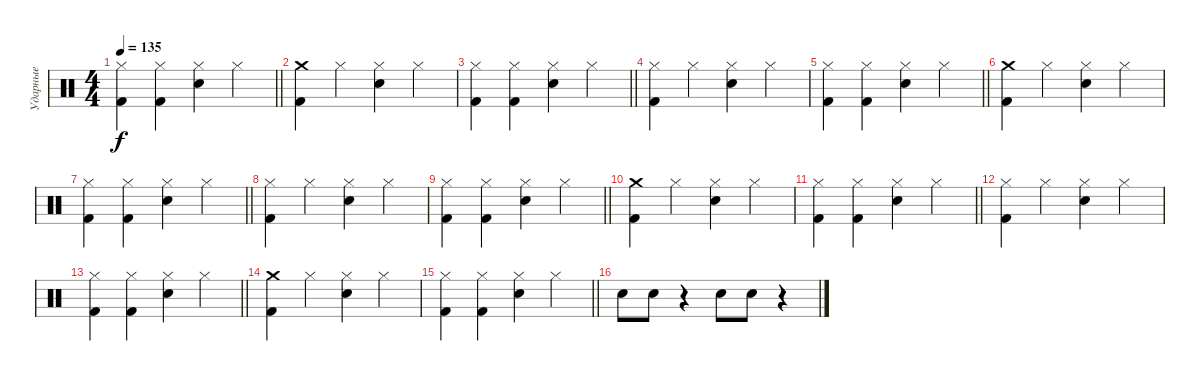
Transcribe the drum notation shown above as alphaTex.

\track ("Ударные" "Ударные") {instrument percussion}
\staff {score}
\articulation defaults
\ts (4 4)
\tempo 135
\clef neutral
\barLineRight lightlight
\ks c
("Hi-Hat (closed)" "Kick (hit) 2").4{dy f} ("Hi-Hat (closed)" "Kick (hit) 2").4 ("Hi-Hat (closed)" "Electric Snare (hit)").4 "Hi-Hat (closed)".4 |
("Crash medium (hit)" "Kick (hit) 2").4 "Hi-Hat (closed)".4 ("Hi-Hat (closed)" "Electric Snare (hit)").4 "Hi-Hat (closed)".4 |
\barLineRight lightlight
("Hi-Hat (closed)" "Kick (hit) 2").4 ("Hi-Hat (closed)" "Kick (hit) 2").4 ("Hi-Hat (closed)" "Electric Snare (hit)").4 "Hi-Hat (closed)".4 |
("Hi-Hat (closed)" "Kick (hit) 2").4 "Hi-Hat (closed)".4 ("Hi-Hat (closed)" "Electric Snare (hit)").4 "Hi-Hat (closed)".4 |
\barLineRight lightlight
("Hi-Hat (closed)" "Kick (hit) 2").4 ("Hi-Hat (closed)" "Kick (hit) 2").4 ("Hi-Hat (closed)" "Electric Snare (hit)").4 "Hi-Hat (closed)".4 |
("Crash medium (hit)" "Kick (hit) 2").4 "Hi-Hat (closed)".4 ("Hi-Hat (closed)" "Electric Snare (hit)").4 "Hi-Hat (closed)".4 |
\barLineRight lightlight
("Hi-Hat (closed)" "Kick (hit) 2").4 ("Hi-Hat (closed)" "Kick (hit) 2").4 ("Hi-Hat (closed)" "Electric Snare (hit)").4 "Hi-Hat (closed)".4 |
("Hi-Hat (closed)" "Kick (hit) 2").4 "Hi-Hat (closed)".4 ("Hi-Hat (closed)" "Electric Snare (hit)").4 "Hi-Hat (closed)".4 |
\barLineRight lightlight
("Hi-Hat (closed)" "Kick (hit) 2").4 ("Hi-Hat (closed)" "Kick (hit) 2").4 ("Hi-Hat (closed)" "Electric Snare (hit)").4 "Hi-Hat (closed)".4 |
("Crash medium (hit)" "Kick (hit) 2").4 "Hi-Hat (closed)".4 ("Hi-Hat (closed)" "Electric Snare (hit)").4 "Hi-Hat (closed)".4 |
\barLineRight lightlight
("Hi-Hat (closed)" "Kick (hit) 2").4 ("Hi-Hat (closed)" "Kick (hit) 2").4 ("Hi-Hat (closed)" "Electric Snare (hit)").4 "Hi-Hat (closed)".4 |
("Hi-Hat (closed)" "Kick (hit) 2").4 "Hi-Hat (closed)".4 ("Hi-Hat (closed)" "Electric Snare (hit)").4 "Hi-Hat (closed)".4 |
\barLineRight lightlight
("Hi-Hat (closed)" "Kick (hit) 2").4 ("Hi-Hat (closed)" "Kick (hit) 2").4 ("Hi-Hat (closed)" "Electric Snare (hit)").4 "Hi-Hat (closed)".4 |
("Crash medium (hit)" "Kick (hit) 2").4 "Hi-Hat (closed)".4 ("Hi-Hat (closed)" "Electric Snare (hit)").4 "Hi-Hat (closed)".4 |
\barLineRight lightlight
("Hi-Hat (closed)" "Kick (hit) 2").4 ("Hi-Hat (closed)" "Kick (hit) 2").4 ("Hi-Hat (closed)" "Electric Snare (hit)").4 "Hi-Hat (closed)".4 |
"Electric Snare (hit)".8 "Electric Snare (hit)".8 r.4 "Electric Snare (hit)".8 "Electric Snare (hit)".8 r.4
